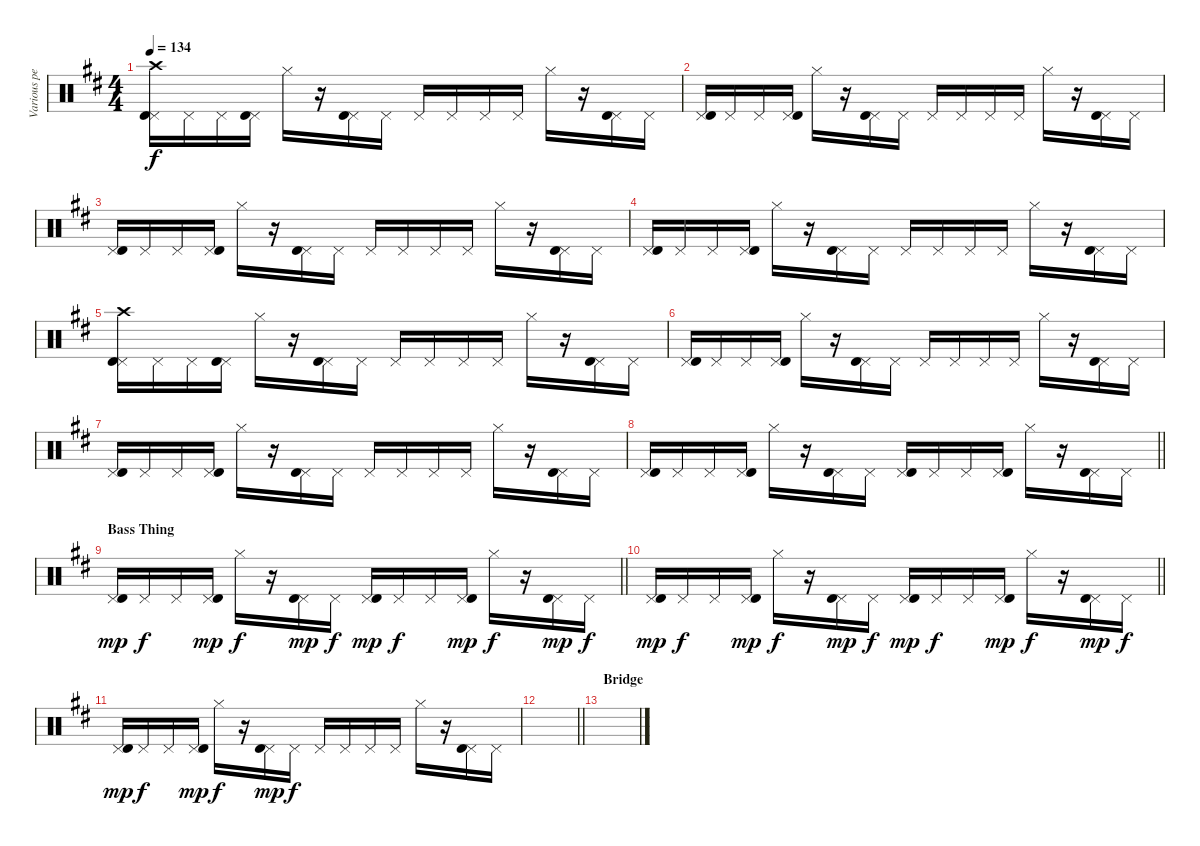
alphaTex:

\track ("Various percussion" "Various pe") {instrument percussion}
\staff {score}
\articulation defaults
\ts (4 4)
\tempo 134
\clef neutral
\ks bminor
("Pedal Hi-Hat (hit)" "Timbale high (hit)" "Crash high (hit)").16{dy f} "Pedal Hi-Hat (hit)".16 "Pedal Hi-Hat (hit)".16 ("Pedal Hi-Hat (hit)" "Timbale high (hit)").16 "Hi-Hat (closed)".16 r.16 ("Pedal Hi-Hat (hit)" "Timbale high (hit)").16 "Pedal Hi-Hat (hit)".16 "Pedal Hi-Hat (hit)".16 "Pedal Hi-Hat (hit)".16 "Pedal Hi-Hat (hit)".16 "Pedal Hi-Hat (hit)".16 "Hi-Hat (closed)".16 r.16 ("Pedal Hi-Hat (hit)" "Timbale high (hit)").16 "Pedal Hi-Hat (hit)".16 |
("Pedal Hi-Hat (hit)" "Timbale high (hit)").16 "Pedal Hi-Hat (hit)".16 "Pedal Hi-Hat (hit)".16 ("Pedal Hi-Hat (hit)" "Timbale high (hit)").16 "Hi-Hat (closed)".16 r.16 ("Pedal Hi-Hat (hit)" "Timbale high (hit)").16 "Pedal Hi-Hat (hit)".16 "Pedal Hi-Hat (hit)".16 "Pedal Hi-Hat (hit)".16 "Pedal Hi-Hat (hit)".16 "Pedal Hi-Hat (hit)".16 "Hi-Hat (closed)".16 r.16 ("Pedal Hi-Hat (hit)" "Timbale high (hit)").16 "Pedal Hi-Hat (hit)".16 |
("Pedal Hi-Hat (hit)" "Timbale high (hit)").16 "Pedal Hi-Hat (hit)".16 "Pedal Hi-Hat (hit)".16 ("Pedal Hi-Hat (hit)" "Timbale high (hit)").16 "Hi-Hat (closed)".16 r.16 ("Pedal Hi-Hat (hit)" "Timbale high (hit)").16 "Pedal Hi-Hat (hit)".16 "Pedal Hi-Hat (hit)".16 "Pedal Hi-Hat (hit)".16 "Pedal Hi-Hat (hit)".16 "Pedal Hi-Hat (hit)".16 "Hi-Hat (closed)".16 r.16 ("Pedal Hi-Hat (hit)" "Timbale high (hit)").16 "Pedal Hi-Hat (hit)".16 |
("Pedal Hi-Hat (hit)" "Timbale high (hit)").16 "Pedal Hi-Hat (hit)".16 "Pedal Hi-Hat (hit)".16 ("Pedal Hi-Hat (hit)" "Timbale high (hit)").16 "Hi-Hat (closed)".16 r.16 ("Pedal Hi-Hat (hit)" "Timbale high (hit)").16 "Pedal Hi-Hat (hit)".16 "Pedal Hi-Hat (hit)".16 "Pedal Hi-Hat (hit)".16 "Pedal Hi-Hat (hit)".16 "Pedal Hi-Hat (hit)".16 "Hi-Hat (closed)".16 r.16 ("Pedal Hi-Hat (hit)" "Timbale high (hit)").16 "Pedal Hi-Hat (hit)".16 |
("Pedal Hi-Hat (hit)" "Timbale high (hit)" "Crash high (hit)").16 "Pedal Hi-Hat (hit)".16 "Pedal Hi-Hat (hit)".16 ("Pedal Hi-Hat (hit)" "Timbale high (hit)").16 "Hi-Hat (closed)".16 r.16 ("Pedal Hi-Hat (hit)" "Timbale high (hit)").16 "Pedal Hi-Hat (hit)".16 "Pedal Hi-Hat (hit)".16 "Pedal Hi-Hat (hit)".16 "Pedal Hi-Hat (hit)".16 "Pedal Hi-Hat (hit)".16 "Hi-Hat (closed)".16 r.16 ("Pedal Hi-Hat (hit)" "Timbale high (hit)").16 "Pedal Hi-Hat (hit)".16 |
("Pedal Hi-Hat (hit)" "Timbale high (hit)").16 "Pedal Hi-Hat (hit)".16 "Pedal Hi-Hat (hit)".16 ("Pedal Hi-Hat (hit)" "Timbale high (hit)").16 "Hi-Hat (closed)".16 r.16 ("Pedal Hi-Hat (hit)" "Timbale high (hit)").16 "Pedal Hi-Hat (hit)".16 "Pedal Hi-Hat (hit)".16 "Pedal Hi-Hat (hit)".16 "Pedal Hi-Hat (hit)".16 "Pedal Hi-Hat (hit)".16 "Hi-Hat (closed)".16 r.16 ("Pedal Hi-Hat (hit)" "Timbale high (hit)").16 "Pedal Hi-Hat (hit)".16 |
("Pedal Hi-Hat (hit)" "Timbale high (hit)").16 "Pedal Hi-Hat (hit)".16 "Pedal Hi-Hat (hit)".16 ("Pedal Hi-Hat (hit)" "Timbale high (hit)").16 "Hi-Hat (closed)".16 r.16 ("Pedal Hi-Hat (hit)" "Timbale high (hit)").16 "Pedal Hi-Hat (hit)".16 "Pedal Hi-Hat (hit)".16 "Pedal Hi-Hat (hit)".16 "Pedal Hi-Hat (hit)".16 "Pedal Hi-Hat (hit)".16 "Hi-Hat (closed)".16 r.16 ("Pedal Hi-Hat (hit)" "Timbale high (hit)").16 "Pedal Hi-Hat (hit)".16 |
\barLineRight lightlight
("Pedal Hi-Hat (hit)" "Timbale high (hit)").16 "Pedal Hi-Hat (hit)".16 "Pedal Hi-Hat (hit)".16 ("Pedal Hi-Hat (hit)" "Timbale high (hit)").16 "Hi-Hat (closed)".16 r.16 ("Pedal Hi-Hat (hit)" "Timbale high (hit)").16 "Pedal Hi-Hat (hit)".16 ("Pedal Hi-Hat (hit)" "Timbale high (hit)").16 "Pedal Hi-Hat (hit)".16 "Pedal Hi-Hat (hit)".16 ("Pedal Hi-Hat (hit)" "Timbale high (hit)").16 "Hi-Hat (closed)".16 r.16 ("Pedal Hi-Hat (hit)" "Timbale high (hit)").16 "Pedal Hi-Hat (hit)".16 |
\section ("" "Bass Thing")
\barLineRight lightlight
("Pedal Hi-Hat (hit)" "Timbale high (hit)").16{dy mp} "Pedal Hi-Hat (hit)".16{dy f} "Pedal Hi-Hat (hit)".16 ("Pedal Hi-Hat (hit)" "Timbale high (hit)").16{dy mp} "Hi-Hat (closed)".16{dy f} r.16 ("Pedal Hi-Hat (hit)" "Timbale high (hit)").16{dy mp} "Pedal Hi-Hat (hit)".16{dy f} ("Pedal Hi-Hat (hit)" "Timbale high (hit)").16{dy mp} "Pedal Hi-Hat (hit)".16{dy f} "Pedal Hi-Hat (hit)".16 ("Pedal Hi-Hat (hit)" "Timbale high (hit)").16{dy mp} "Hi-Hat (closed)".16{dy f} r.16 ("Pedal Hi-Hat (hit)" "Timbale high (hit)").16{dy mp} "Pedal Hi-Hat (hit)".16{dy f} |
\barLineRight lightlight
("Pedal Hi-Hat (hit)" "Timbale high (hit)").16{dy mp} "Pedal Hi-Hat (hit)".16{dy f} "Pedal Hi-Hat (hit)".16 ("Pedal Hi-Hat (hit)" "Timbale high (hit)").16{dy mp} "Hi-Hat (closed)".16{dy f} r.16 ("Pedal Hi-Hat (hit)" "Timbale high (hit)").16{dy mp} "Pedal Hi-Hat (hit)".16{dy f} ("Pedal Hi-Hat (hit)" "Timbale high (hit)").16{dy mp} "Pedal Hi-Hat (hit)".16{dy f} "Pedal Hi-Hat (hit)".16 ("Pedal Hi-Hat (hit)" "Timbale high (hit)").16{dy mp} "Hi-Hat (closed)".16{dy f} r.16 ("Pedal Hi-Hat (hit)" "Timbale high (hit)").16{dy mp} "Pedal Hi-Hat (hit)".16{dy f} |
("Pedal Hi-Hat (hit)" "Timbale high (hit)").16{dy mp} "Pedal Hi-Hat (hit)".16{dy f} "Pedal Hi-Hat (hit)".16 ("Pedal Hi-Hat (hit)" "Timbale high (hit)").16{dy mp} "Hi-Hat (closed)".16{dy f} r.16 ("Pedal Hi-Hat (hit)" "Timbale high (hit)").16{dy mp} "Pedal Hi-Hat (hit)".16{dy f} "Pedal Hi-Hat (hit)".16 "Pedal Hi-Hat (hit)".16 "Pedal Hi-Hat (hit)".16 "Pedal Hi-Hat (hit)".16 "Hi-Hat (closed)".16 r.16 ("Pedal Hi-Hat (hit)" "Timbale high (hit)").16 "Pedal Hi-Hat (hit)".16 |
\barLineRight lightlight
|
\section ("" "Bridge")
